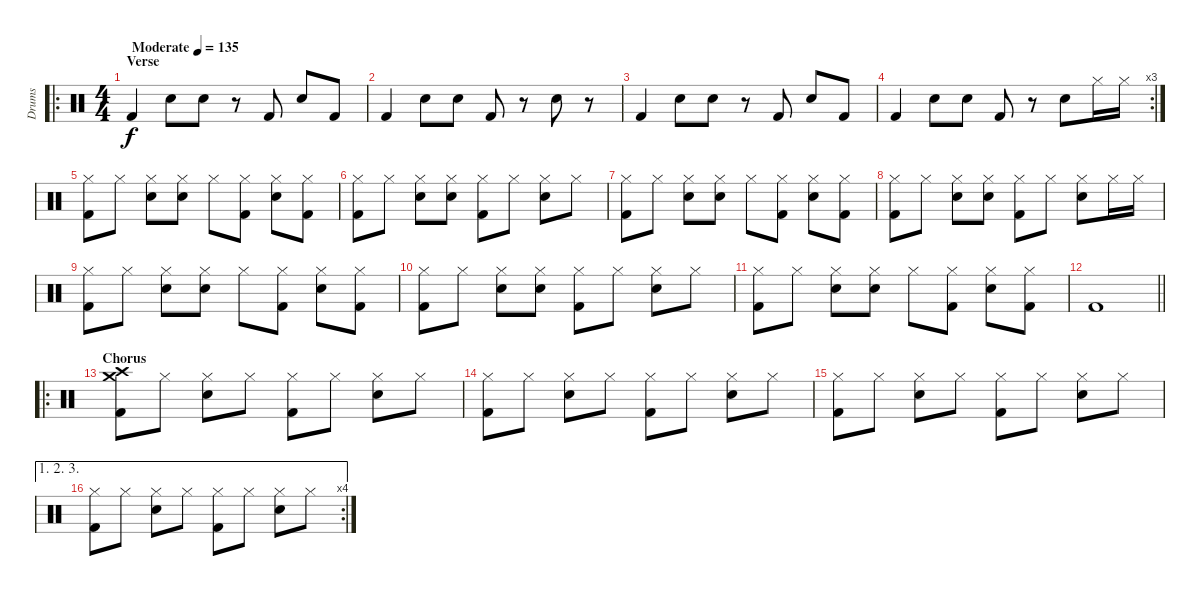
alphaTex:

\track ("Drums" "Drums") {instrument percussion}
\staff {score}
\articulation defaults
\ro
\ts (4 4)
\section ("" "Verse")
\tempo (135 "Moderate")
\clef neutral
\ks c "Kick (hit) 2".4{dy f} "Hand Clap (hit)".8 "Hand Clap (hit)".8
r.8 "Kick (hit) 2".8 "Hand Clap (hit)".8 "Kick (hit) 2".8 |
"Kick (hit) 2".4 "Hand Clap (hit)".8 "Hand Clap (hit)".8 "Kick (hit) 2".8 r.8 "Hand Clap (hit)".8 r.8 |
"Kick (hit) 2".4 "Hand Clap (hit)".8 "Hand Clap (hit)".8 r.8 "Kick (hit) 2".8 "Hand Clap (hit)".8 "Kick (hit) 2".8 |
\rc 3 "Kick (hit) 2".4 "Hand Clap (hit)".8 "Hand Clap (hit)".8 "Kick (hit) 2".8
r.8 "Hand Clap (hit)".8 "Hi-Hat (closed)".16 "Hi-Hat (closed)".16 |
("Hi-Hat (closed)" "Kick (hit) 2").8 "Hi-Hat (closed)".8 ("Hi-Hat (closed)" "Hand Clap (hit)").8 ("Hi-Hat (closed)" "Hand Clap (hit)").8 "Hi-Hat (closed)".8 ("Hi-Hat (closed)" "Kick (hit) 2").8 ("Hi-Hat (closed)" "Hand Clap (hit)").8 ("Hi-Hat (closed)" "Kick (hit) 2").8 |
("Hi-Hat (closed)" "Kick (hit) 2").8 "Hi-Hat (closed)".8 ("Hi-Hat (closed)" "Hand Clap (hit)").8 ("Hi-Hat (closed)" "Hand Clap (hit)").8 ("Hi-Hat (closed)" "Kick (hit) 2").8 "Hi-Hat (closed)".8 ("Hi-Hat (closed)" "Hand Clap (hit)").8 "Hi-Hat (closed)".8 |
("Hi-Hat (closed)" "Kick (hit) 2").8 "Hi-Hat (closed)".8 ("Hi-Hat (closed)" "Hand Clap (hit)").8 ("Hi-Hat (closed)" "Hand Clap (hit)").8 "Hi-Hat (closed)".8 ("Hi-Hat (closed)" "Kick (hit) 2").8 ("Hi-Hat (closed)" "Hand Clap (hit)").8 ("Hi-Hat (closed)" "Kick (hit) 2").8 |
("Hi-Hat (closed)" "Kick (hit) 2").8 "Hi-Hat (closed)".8 ("Hi-Hat (closed)" "Hand Clap (hit)").8 ("Hi-Hat (closed)" "Hand Clap (hit)").8 ("Hi-Hat (closed)" "Kick (hit) 2").8 "Hi-Hat (closed)".8 ("Hi-Hat (closed)" "Hand Clap (hit)").8 "Hi-Hat (closed)".16 "Hi-Hat (closed)".16 |
("Hi-Hat (closed)" "Kick (hit) 2").8 "Hi-Hat (closed)".8 ("Hi-Hat (closed)" "Hand Clap (hit)").8 ("Hi-Hat (closed)" "Hand Clap (hit)").8 "Hi-Hat (closed)".8 ("Hi-Hat (closed)" "Kick (hit) 2").8 ("Hi-Hat (closed)" "Hand Clap (hit)").8 ("Hi-Hat (closed)" "Kick (hit) 2").8 |
("Hi-Hat (closed)" "Kick (hit) 2").8 "Hi-Hat (closed)".8 ("Hi-Hat (closed)" "Hand Clap (hit)").8 ("Hi-Hat (closed)" "Hand Clap (hit)").8 ("Hi-Hat (closed)" "Kick (hit) 2").8 "Hi-Hat (closed)".8 ("Hi-Hat (closed)" "Hand Clap (hit)").8 "Hi-Hat (closed)".8 |
("Hi-Hat (closed)" "Kick (hit) 2").8 "Hi-Hat (closed)".8 ("Hi-Hat (closed)" "Hand Clap (hit)").8 ("Hi-Hat (closed)" "Hand Clap (hit)").8 "Hi-Hat (closed)".8 ("Hi-Hat (closed)" "Kick (hit) 2").8 ("Hi-Hat (closed)" "Hand Clap (hit)").8 ("Hi-Hat (closed)" "Kick (hit) 2").8 |
\barLineRight lightlight "Kick (hit) 2".1
|
\ro
\section ("" "Chorus")
("Crash high (hit)" "Crash medium (hit)" "Kick (hit) 2").8 "Hi-Hat (closed)".8 ("Hi-Hat (closed)" "Electric Snare (hit)").8 "Hi-Hat (closed)".8 ("Hi-Hat (closed)" "Kick (hit) 2").8 "Hi-Hat (closed)".8 ("Hi-Hat (closed)" "Electric Snare (hit)").8 "Hi-Hat (closed)".8 |
("Hi-Hat (closed)" "Kick (hit) 2").8 "Hi-Hat (closed)".8 ("Hi-Hat (closed)" "Electric Snare (hit)").8 "Hi-Hat (closed)".8 ("Hi-Hat (closed)" "Kick (hit) 2").8 "Hi-Hat (closed)".8 ("Hi-Hat (closed)" "Electric Snare (hit)").8 "Hi-Hat (closed)".8 |
("Hi-Hat (closed)" "Kick (hit) 2").8 "Hi-Hat (closed)".8 ("Hi-Hat (closed)" "Electric Snare (hit)").8 "Hi-Hat (closed)".8 ("Hi-Hat (closed)" "Kick (hit) 2").8 "Hi-Hat (closed)".8 ("Hi-Hat (closed)" "Electric Snare (hit)").8 "Hi-Hat (closed)".8 |
\ae (1 2 3)
\rc 4
("Hi-Hat (closed)" "Kick (hit) 2").8 "Hi-Hat (closed)".8 ("Hi-Hat (closed)" "Electric Snare (hit)").8 "Hi-Hat (closed)".8 ("Hi-Hat (closed)" "Kick (hit) 2").8 "Hi-Hat (closed)".8 ("Hi-Hat (closed)" "Electric Snare (hit)").8 "Hi-Hat (closed)".8
